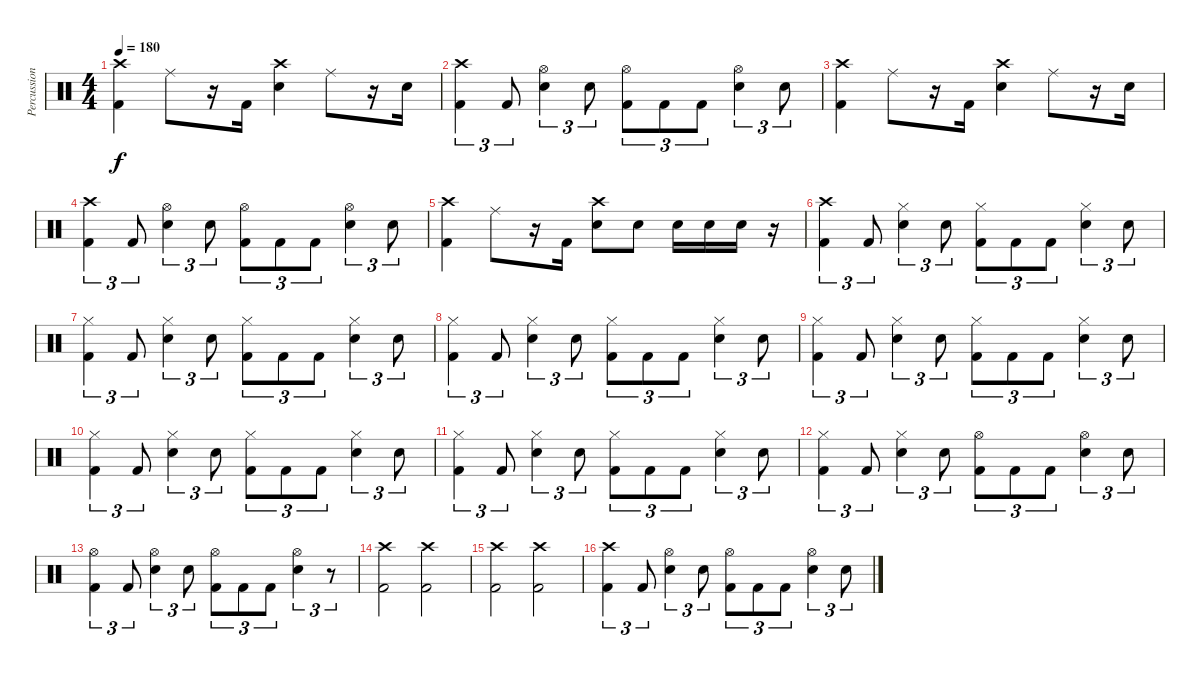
\track ("Percussion" "Percussion") {instrument percussion}
\staff {score}
\articulation defaults
\ts (4 4)
\tempo 180
\clef neutral
\ks c
("Crash high (hit)" "Kick (hit) 2").4{dy f} "Ride (middle)".8 r.16 "Kick (hit) 2".16 ("Crash high (hit)" "Electric Snare (hit)").4 "Ride (middle)".8 r.16 "Electric Snare (hit)".16 |
("Crash high (hit)" "Kick (hit) 2").4{tu (3 2)} "Kick (hit) 2".8{tu (3 2)} ("Hi-Hat (open)" "Electric Snare (hit)").4{tu (3 2)} "Electric Snare (hit)".8{tu (3 2)} ("Hi-Hat (open)" "Kick (hit) 2").8{tu (3 2)} "Kick (hit) 2".8{tu (3 2)} "Kick (hit) 2".8{tu (3 2)} ("Hi-Hat (open)" "Electric Snare (hit)").4{tu (3 2)} "Electric Snare (hit)".8{tu (3 2)} |
("Crash high (hit)" "Kick (hit) 2").4 "Ride (middle)".8 r.16 "Kick (hit) 2".16 ("Crash high (hit)" "Electric Snare (hit)").4 "Ride (middle)".8 r.16 "Electric Snare (hit)".16 |
("Crash high (hit)" "Kick (hit) 2").4{tu (3 2)} "Kick (hit) 2".8{tu (3 2)} ("Hi-Hat (open)" "Electric Snare (hit)").4{tu (3 2)} "Electric Snare (hit)".8{tu (3 2)} ("Hi-Hat (open)" "Kick (hit) 2").8{tu (3 2)} "Kick (hit) 2".8{tu (3 2)} "Kick (hit) 2".8{tu (3 2)} ("Hi-Hat (open)" "Electric Snare (hit)").4{tu (3 2)} "Electric Snare (hit)".8{tu (3 2)} |
("Crash high (hit)" "Kick (hit) 2").4 "Ride (middle)".8 r.16 "Kick (hit) 2".16 ("Crash high (hit)" "Electric Snare (hit)").8 "Electric Snare (hit)".8 "Electric Snare (hit)".16 "Electric Snare (hit)".16 "Electric Snare (hit)".16 r.16 |
("Crash high (hit)" "Kick (hit) 2").4{tu (3 2)} "Kick (hit) 2".8{tu (3 2)} ("Hi-Hat (closed)" "Electric Snare (hit)").4{tu (3 2)} "Electric Snare (hit)".8{tu (3 2)} ("Hi-Hat (closed)" "Kick (hit) 2").8{tu (3 2)} "Kick (hit) 2".8{tu (3 2)} "Kick (hit) 2".8{tu (3 2)} ("Hi-Hat (closed)" "Electric Snare (hit)").4{tu (3 2)} "Electric Snare (hit)".8{tu (3 2)} |
("Hi-Hat (closed)" "Kick (hit) 2").4{tu (3 2)} "Kick (hit) 2".8{tu (3 2)} ("Hi-Hat (closed)" "Electric Snare (hit)").4{tu (3 2)} "Electric Snare (hit)".8{tu (3 2)} ("Hi-Hat (closed)" "Kick (hit) 2").8{tu (3 2)} "Kick (hit) 2".8{tu (3 2)} "Kick (hit) 2".8{tu (3 2)} ("Hi-Hat (closed)" "Electric Snare (hit)").4{tu (3 2)} "Electric Snare (hit)".8{tu (3 2)} |
("Hi-Hat (closed)" "Kick (hit) 2").4{tu (3 2)} "Kick (hit) 2".8{tu (3 2)} ("Hi-Hat (closed)" "Electric Snare (hit)").4{tu (3 2)} "Electric Snare (hit)".8{tu (3 2)} ("Hi-Hat (closed)" "Kick (hit) 2").8{tu (3 2)} "Kick (hit) 2".8{tu (3 2)} "Kick (hit) 2".8{tu (3 2)} ("Hi-Hat (closed)" "Electric Snare (hit)").4{tu (3 2)} "Electric Snare (hit)".8{tu (3 2)} |
("Hi-Hat (closed)" "Kick (hit) 2").4{tu (3 2)} "Kick (hit) 2".8{tu (3 2)} ("Hi-Hat (closed)" "Electric Snare (hit)").4{tu (3 2)} "Electric Snare (hit)".8{tu (3 2)} ("Hi-Hat (closed)" "Kick (hit) 2").8{tu (3 2)} "Kick (hit) 2".8{tu (3 2)} "Kick (hit) 2".8{tu (3 2)} ("Hi-Hat (closed)" "Electric Snare (hit)").4{tu (3 2)} "Electric Snare (hit)".8{tu (3 2)} |
("Hi-Hat (closed)" "Kick (hit) 2").4{tu (3 2)} "Kick (hit) 2".8{tu (3 2)} ("Hi-Hat (closed)" "Electric Snare (hit)").4{tu (3 2)} "Electric Snare (hit)".8{tu (3 2)} ("Hi-Hat (closed)" "Kick (hit) 2").8{tu (3 2)} "Kick (hit) 2".8{tu (3 2)} "Kick (hit) 2".8{tu (3 2)} ("Hi-Hat (closed)" "Electric Snare (hit)").4{tu (3 2)} "Electric Snare (hit)".8{tu (3 2)} |
("Hi-Hat (closed)" "Kick (hit) 2").4{tu (3 2)} "Kick (hit) 2".8{tu (3 2)} ("Hi-Hat (closed)" "Electric Snare (hit)").4{tu (3 2)} "Electric Snare (hit)".8{tu (3 2)} ("Hi-Hat (closed)" "Kick (hit) 2").8{tu (3 2)} "Kick (hit) 2".8{tu (3 2)} "Kick (hit) 2".8{tu (3 2)} ("Hi-Hat (closed)" "Electric Snare (hit)").4{tu (3 2)} "Electric Snare (hit)".8{tu (3 2)} |
("Hi-Hat (closed)" "Kick (hit) 2").4{tu (3 2)} "Kick (hit) 2".8{tu (3 2)} ("Hi-Hat (closed)" "Electric Snare (hit)").4{tu (3 2)} "Electric Snare (hit)".8{tu (3 2)} ("Hi-Hat (open)" "Kick (hit) 2").8{tu (3 2)} "Kick (hit) 2".8{tu (3 2)} "Kick (hit) 2".8{tu (3 2)} ("Hi-Hat (open)" "Electric Snare (hit)").4{tu (3 2)} "Electric Snare (hit)".8{tu (3 2)} |
("Hi-Hat (open)" "Kick (hit) 2").4{tu (3 2)} "Kick (hit) 2".8{tu (3 2)} ("Hi-Hat (open)" "Electric Snare (hit)").4{tu (3 2)} "Electric Snare (hit)".8{tu (3 2)} ("Hi-Hat (open)" "Kick (hit) 2").8{tu (3 2)} "Kick (hit) 2".8{tu (3 2)} "Kick (hit) 2".8{tu (3 2)} ("Hi-Hat (open)" "Electric Snare (hit)").4{tu (3 2)} r.8{tu (3 2)} |
("Crash high (hit)" "Kick (hit) 2").2 ("Crash high (hit)" "Kick (hit) 2").2 |
("Crash high (hit)" "Kick (hit) 2").2 ("Crash high (hit)" "Kick (hit) 2").2 |
("Crash high (hit)" "Kick (hit) 2").4{tu (3 2)} "Kick (hit) 2".8{tu (3 2)} ("Hi-Hat (open)" "Electric Snare (hit)").4{tu (3 2)} "Electric Snare (hit)".8{tu (3 2)} ("Hi-Hat (open)" "Kick (hit) 2").8{tu (3 2)} "Kick (hit) 2".8{tu (3 2)} "Kick (hit) 2".8{tu (3 2)} ("Hi-Hat (open)" "Electric Snare (hit)").4{tu (3 2)} "Electric Snare (hit)".8{tu (3 2)}
